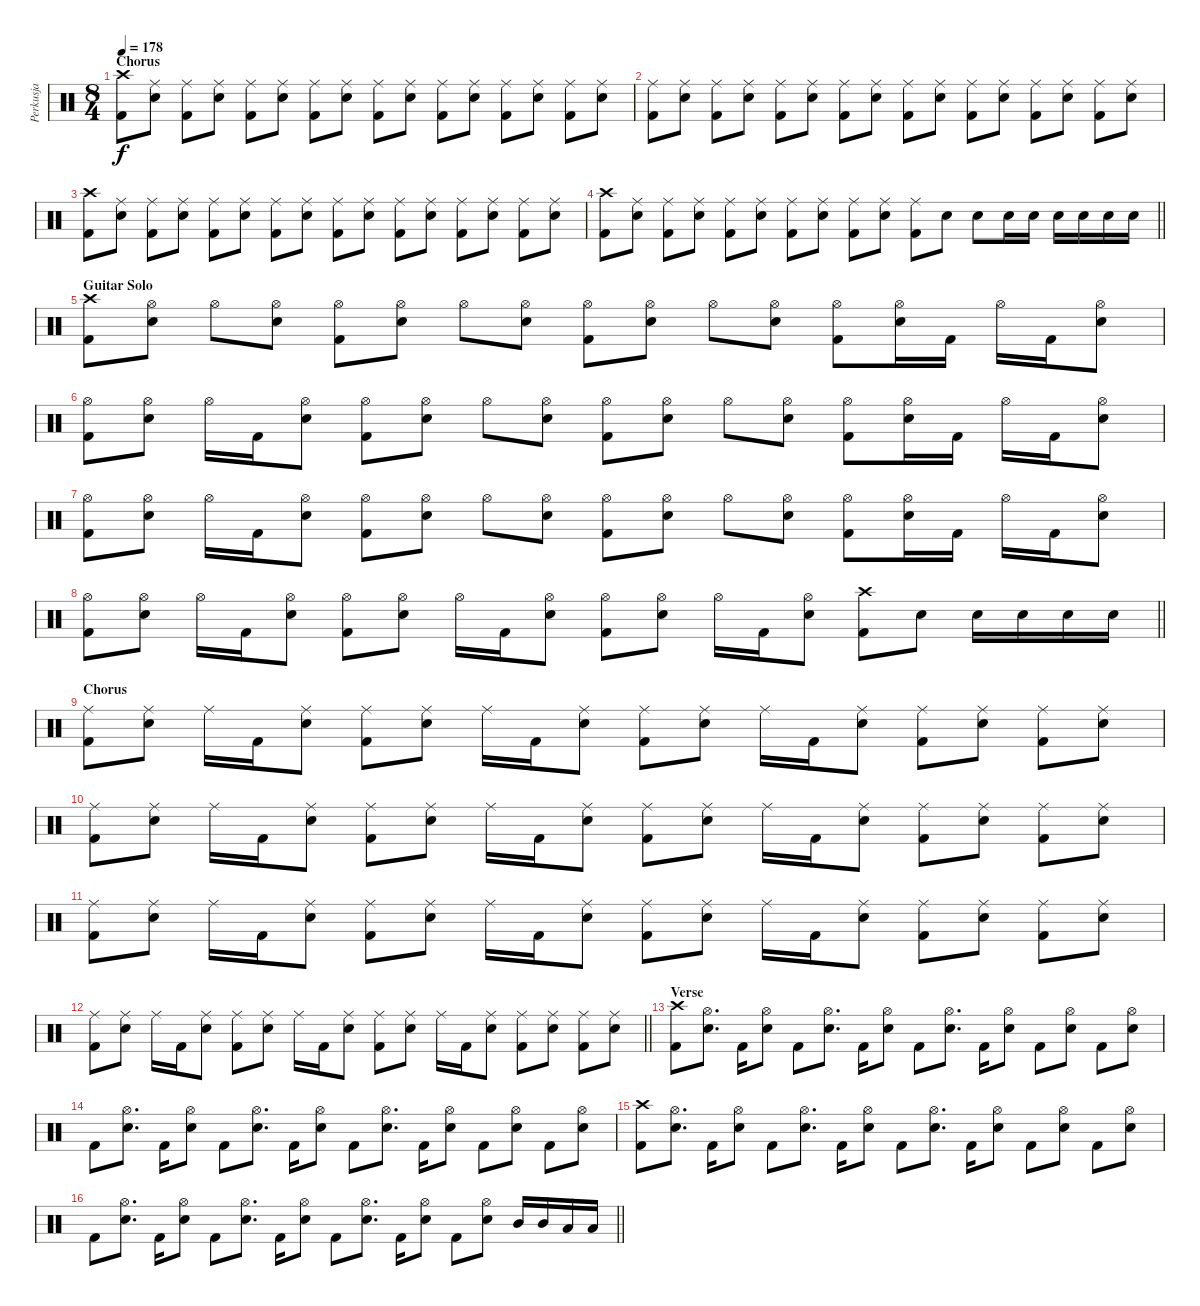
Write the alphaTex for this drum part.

\track ("Perkusja" "Perkusja") {instrument percussion}
\staff {score}
\articulation defaults
\ts (8 4)
\section ("" "Chorus")
\tempo 178
\clef neutral
\ks c
("Crash high (hit)" "Kick (hit) 2").8{dy f} ("Ride (middle)" "Snare (hit) 2").8 ("Ride (middle)" "Kick (hit) 2").8 ("Ride (middle)" "Snare (hit) 2").8 ("Ride (middle)" "Kick (hit) 2").8 ("Ride (middle)" "Snare (hit) 2").8 ("Ride (middle)" "Kick (hit) 2").8 ("Ride (middle)" "Snare (hit) 2").8 ("Ride (middle)" "Kick (hit) 2").8 ("Ride (middle)" "Snare (hit) 2").8 ("Ride (middle)" "Kick (hit) 2").8 ("Ride (middle)" "Snare (hit) 2").8 ("Ride (middle)" "Kick (hit) 2").8 ("Ride (middle)" "Snare (hit) 2").8 ("Ride (middle)" "Kick (hit) 2").8 ("Ride (middle)" "Snare (hit) 2").8 |
("Ride (middle)" "Kick (hit) 2").8 ("Ride (middle)" "Snare (hit) 2").8 ("Ride (middle)" "Kick (hit) 2").8 ("Ride (middle)" "Snare (hit) 2").8 ("Ride (middle)" "Kick (hit) 2").8 ("Ride (middle)" "Snare (hit) 2").8 ("Ride (middle)" "Kick (hit) 2").8 ("Ride (middle)" "Snare (hit) 2").8 ("Ride (middle)" "Kick (hit) 2").8 ("Ride (middle)" "Snare (hit) 2").8 ("Ride (middle)" "Kick (hit) 2").8 ("Ride (middle)" "Snare (hit) 2").8 ("Ride (middle)" "Kick (hit) 2").8 ("Ride (middle)" "Snare (hit) 2").8 ("Ride (middle)" "Kick (hit) 2").8 ("Ride (middle)" "Snare (hit) 2").8 |
("Crash high (hit)" "Kick (hit) 2").8 ("Ride (middle)" "Snare (hit) 2").8 ("Ride (middle)" "Kick (hit) 2").8 ("Ride (middle)" "Snare (hit) 2").8 ("Ride (middle)" "Kick (hit) 2").8 ("Ride (middle)" "Snare (hit) 2").8 ("Ride (middle)" "Kick (hit) 2").8 ("Ride (middle)" "Snare (hit) 2").8 ("Ride (middle)" "Kick (hit) 2").8 ("Ride (middle)" "Snare (hit) 2").8 ("Ride (middle)" "Kick (hit) 2").8 ("Ride (middle)" "Snare (hit) 2").8 ("Ride (middle)" "Kick (hit) 2").8 ("Ride (middle)" "Snare (hit) 2").8 ("Ride (middle)" "Kick (hit) 2").8 ("Ride (middle)" "Snare (hit) 2").8 |
\barLineRight lightlight
("Crash high (hit)" "Kick (hit) 2").8 ("Ride (middle)" "Snare (hit) 2").8 ("Ride (middle)" "Kick (hit) 2").8 ("Ride (middle)" "Snare (hit) 2").8 ("Ride (middle)" "Kick (hit) 2").8 ("Ride (middle)" "Snare (hit) 2").8 ("Ride (middle)" "Kick (hit) 2").8 ("Ride (middle)" "Snare (hit) 2").8 ("Ride (middle)" "Kick (hit) 2").8 ("Ride (middle)" "Snare (hit) 2").8 ("Ride (middle)" "Kick (hit) 2").8 "Snare (hit) 2".8 "Snare (hit) 2".8 "Snare (hit) 2".16 "Snare (hit) 2".16 "Snare (hit) 2".16 "Snare (hit) 2".16 "Snare (hit) 2".16 "Snare (hit) 2".16 |
\section ("" "Guitar Solo")
("Crash high (hit)" "Kick (hit) 2").8 ("Hi-Hat (open)" "Snare (hit) 2").8 "Hi-Hat (open)".8 ("Hi-Hat (open)" "Snare (hit) 2").8 ("Hi-Hat (open)" "Kick (hit) 2").8 ("Hi-Hat (open)" "Snare (hit) 2").8 "Hi-Hat (open)".8 ("Hi-Hat (open)" "Snare (hit) 2").8 ("Hi-Hat (open)" "Kick (hit) 2").8 ("Hi-Hat (open)" "Snare (hit) 2").8 "Hi-Hat (open)".8 ("Hi-Hat (open)" "Snare (hit) 2").8 ("Hi-Hat (open)" "Kick (hit) 2").8 ("Hi-Hat (open)" "Snare (hit) 2").16 "Kick (hit) 2".16 "Hi-Hat (open)".16 "Kick (hit) 2".16 ("Hi-Hat (open)" "Snare (hit) 2").8 |
("Hi-Hat (open)" "Kick (hit) 2").8 ("Hi-Hat (open)" "Snare (hit) 2").8 "Hi-Hat (open)".16 "Kick (hit) 2".16 ("Hi-Hat (open)" "Snare (hit) 2").8 ("Hi-Hat (open)" "Kick (hit) 2").8 ("Hi-Hat (open)" "Snare (hit) 2").8 "Hi-Hat (open)".8 ("Hi-Hat (open)" "Snare (hit) 2").8 ("Hi-Hat (open)" "Kick (hit) 2").8 ("Hi-Hat (open)" "Snare (hit) 2").8 "Hi-Hat (open)".8 ("Hi-Hat (open)" "Snare (hit) 2").8 ("Hi-Hat (open)" "Kick (hit) 2").8 ("Hi-Hat (open)" "Snare (hit) 2").16 "Kick (hit) 2".16 "Hi-Hat (open)".16 "Kick (hit) 2".16 ("Hi-Hat (open)" "Snare (hit) 2").8 |
("Hi-Hat (open)" "Kick (hit) 2").8 ("Hi-Hat (open)" "Snare (hit) 2").8 "Hi-Hat (open)".16 "Kick (hit) 2".16 ("Hi-Hat (open)" "Snare (hit) 2").8 ("Hi-Hat (open)" "Kick (hit) 2").8 ("Hi-Hat (open)" "Snare (hit) 2").8 "Hi-Hat (open)".8 ("Hi-Hat (open)" "Snare (hit) 2").8 ("Hi-Hat (open)" "Kick (hit) 2").8 ("Hi-Hat (open)" "Snare (hit) 2").8 "Hi-Hat (open)".8 ("Hi-Hat (open)" "Snare (hit) 2").8 ("Hi-Hat (open)" "Kick (hit) 2").8 ("Hi-Hat (open)" "Snare (hit) 2").16 "Kick (hit) 2".16 "Hi-Hat (open)".16 "Kick (hit) 2".16 ("Hi-Hat (open)" "Snare (hit) 2").8 |
\barLineRight lightlight
("Hi-Hat (open)" "Kick (hit) 2").8 ("Hi-Hat (open)" "Snare (hit) 2").8 "Hi-Hat (open)".16 "Kick (hit) 2".16 ("Hi-Hat (open)" "Snare (hit) 2").8 ("Hi-Hat (open)" "Kick (hit) 2").8 ("Hi-Hat (open)" "Snare (hit) 2").8 "Hi-Hat (open)".16 "Kick (hit) 2".16 ("Hi-Hat (open)" "Snare (hit) 2").8 ("Hi-Hat (open)" "Kick (hit) 2").8 ("Hi-Hat (open)" "Snare (hit) 2").8 "Hi-Hat (open)".16 "Kick (hit) 2".16 ("Hi-Hat (open)" "Snare (hit) 2").8 ("Crash high (hit)" "Kick (hit) 2").8 "Snare (hit) 2".8 "Snare (hit) 2".16 "Snare (hit) 2".16 "Snare (hit) 2".16 "Snare (hit) 2".16 |
\section ("" "Chorus")
("Ride (middle)" "Kick (hit) 2").8 ("Ride (middle)" "Snare (hit) 2").8 "Ride (middle)".16 "Kick (hit) 2".16 ("Ride (middle)" "Snare (hit) 2").8 ("Ride (middle)" "Kick (hit) 2").8 ("Ride (middle)" "Snare (hit) 2").8 "Ride (middle)".16 "Kick (hit) 2".16 ("Ride (middle)" "Snare (hit) 2").8 ("Ride (middle)" "Kick (hit) 2").8 ("Ride (middle)" "Snare (hit) 2").8 "Ride (middle)".16 "Kick (hit) 2".16 ("Ride (middle)" "Snare (hit) 2").8 ("Ride (middle)" "Kick (hit) 2").8 ("Ride (middle)" "Snare (hit) 2").8 ("Ride (middle)" "Kick (hit) 2").8 ("Ride (middle)" "Snare (hit) 2").8 |
("Ride (middle)" "Kick (hit) 2").8 ("Ride (middle)" "Snare (hit) 2").8 "Ride (middle)".16 "Kick (hit) 2".16 ("Ride (middle)" "Snare (hit) 2").8 ("Ride (middle)" "Kick (hit) 2").8 ("Ride (middle)" "Snare (hit) 2").8 "Ride (middle)".16 "Kick (hit) 2".16 ("Ride (middle)" "Snare (hit) 2").8 ("Ride (middle)" "Kick (hit) 2").8 ("Ride (middle)" "Snare (hit) 2").8 "Ride (middle)".16 "Kick (hit) 2".16 ("Ride (middle)" "Snare (hit) 2").8 ("Ride (middle)" "Kick (hit) 2").8 ("Ride (middle)" "Snare (hit) 2").8 ("Ride (middle)" "Kick (hit) 2").8 ("Ride (middle)" "Snare (hit) 2").8 |
("Ride (middle)" "Kick (hit) 2").8 ("Ride (middle)" "Snare (hit) 2").8 "Ride (middle)".16 "Kick (hit) 2".16 ("Ride (middle)" "Snare (hit) 2").8 ("Ride (middle)" "Kick (hit) 2").8 ("Ride (middle)" "Snare (hit) 2").8 "Ride (middle)".16 "Kick (hit) 2".16 ("Ride (middle)" "Snare (hit) 2").8 ("Ride (middle)" "Kick (hit) 2").8 ("Ride (middle)" "Snare (hit) 2").8 "Ride (middle)".16 "Kick (hit) 2".16 ("Ride (middle)" "Snare (hit) 2").8 ("Ride (middle)" "Kick (hit) 2").8 ("Ride (middle)" "Snare (hit) 2").8 ("Ride (middle)" "Kick (hit) 2").8 ("Ride (middle)" "Snare (hit) 2").8 |
\barLineRight lightlight
("Ride (middle)" "Kick (hit) 2").8 ("Ride (middle)" "Snare (hit) 2").8 "Ride (middle)".16 "Kick (hit) 2".16 ("Ride (middle)" "Snare (hit) 2").8 ("Ride (middle)" "Kick (hit) 2").8 ("Ride (middle)" "Snare (hit) 2").8 "Ride (middle)".16 "Kick (hit) 2".16 ("Ride (middle)" "Snare (hit) 2").8 ("Ride (middle)" "Kick (hit) 2").8 ("Ride (middle)" "Snare (hit) 2").8 "Ride (middle)".16 "Kick (hit) 2".16 ("Ride (middle)" "Snare (hit) 2").8 ("Ride (middle)" "Kick (hit) 2").8 ("Ride (middle)" "Snare (hit) 2").8 ("Ride (middle)" "Kick (hit) 2").8 ("Ride (middle)" "Snare (hit) 2").8 |
\section ("" "Verse")
("Crash high (hit)" "Kick (hit) 2").8 ("Hi-Hat (open)" "Snare (hit) 2").8{d} "Kick (hit) 2".16 ("Hi-Hat (open)" "Snare (hit) 2").8 "Kick (hit) 2".8 ("Hi-Hat (open)" "Snare (hit) 2").8{d} "Kick (hit) 2".16 ("Hi-Hat (open)" "Snare (hit) 2").8 "Kick (hit) 2".8 ("Hi-Hat (open)" "Snare (hit) 2").8{d} "Kick (hit) 2".16 ("Hi-Hat (open)" "Snare (hit) 2").8 "Kick (hit) 2".8 ("Hi-Hat (open)" "Snare (hit) 2").8 "Kick (hit) 2".8 ("Hi-Hat (open)" "Snare (hit) 2").8 |
"Kick (hit) 2".8 ("Hi-Hat (open)" "Snare (hit) 2").8{d} "Kick (hit) 2".16 ("Hi-Hat (open)" "Snare (hit) 2").8 "Kick (hit) 2".8 ("Hi-Hat (open)" "Snare (hit) 2").8{d} "Kick (hit) 2".16 ("Hi-Hat (open)" "Snare (hit) 2").8 "Kick (hit) 2".8 ("Hi-Hat (open)" "Snare (hit) 2").8{d} "Kick (hit) 2".16 ("Hi-Hat (open)" "Snare (hit) 2").8 "Kick (hit) 2".8 ("Hi-Hat (open)" "Snare (hit) 2").8 "Kick (hit) 2".8 ("Hi-Hat (open)" "Snare (hit) 2").8 |
("Crash high (hit)" "Kick (hit) 2").8 ("Hi-Hat (open)" "Snare (hit) 2").8{d} "Kick (hit) 2".16 ("Hi-Hat (open)" "Snare (hit) 2").8 "Kick (hit) 2".8 ("Hi-Hat (open)" "Snare (hit) 2").8{d} "Kick (hit) 2".16 ("Hi-Hat (open)" "Snare (hit) 2").8 "Kick (hit) 2".8 ("Hi-Hat (open)" "Snare (hit) 2").8{d} "Kick (hit) 2".16 ("Hi-Hat (open)" "Snare (hit) 2").8 "Kick (hit) 2".8 ("Hi-Hat (open)" "Snare (hit) 2").8 "Kick (hit) 2".8 ("Hi-Hat (open)" "Snare (hit) 2").8 |
\barLineRight lightlight "Kick (hit) 2".8
("Hi-Hat (open)" "Snare (hit) 2").8{d} "Kick (hit) 2".16 ("Hi-Hat (open)" "Snare (hit) 2").8 "Kick (hit) 2".8 ("Hi-Hat (open)" "Snare (hit) 2").8{d} "Kick (hit) 2".16 ("Hi-Hat (open)" "Snare (hit) 2").8 "Kick (hit) 2".8 ("Hi-Hat (open)" "Snare (hit) 2").8{d} "Kick (hit) 2".16 ("Hi-Hat (open)" "Snare (hit) 2").8 "Kick (hit) 2".8 ("Hi-Hat (open)" "Snare (hit) 2").8 "Mid Tom (hit)".16 "Mid Tom (hit)".16 "Low Floor Tom (hit)".16 "Low Floor Tom (hit)".16
